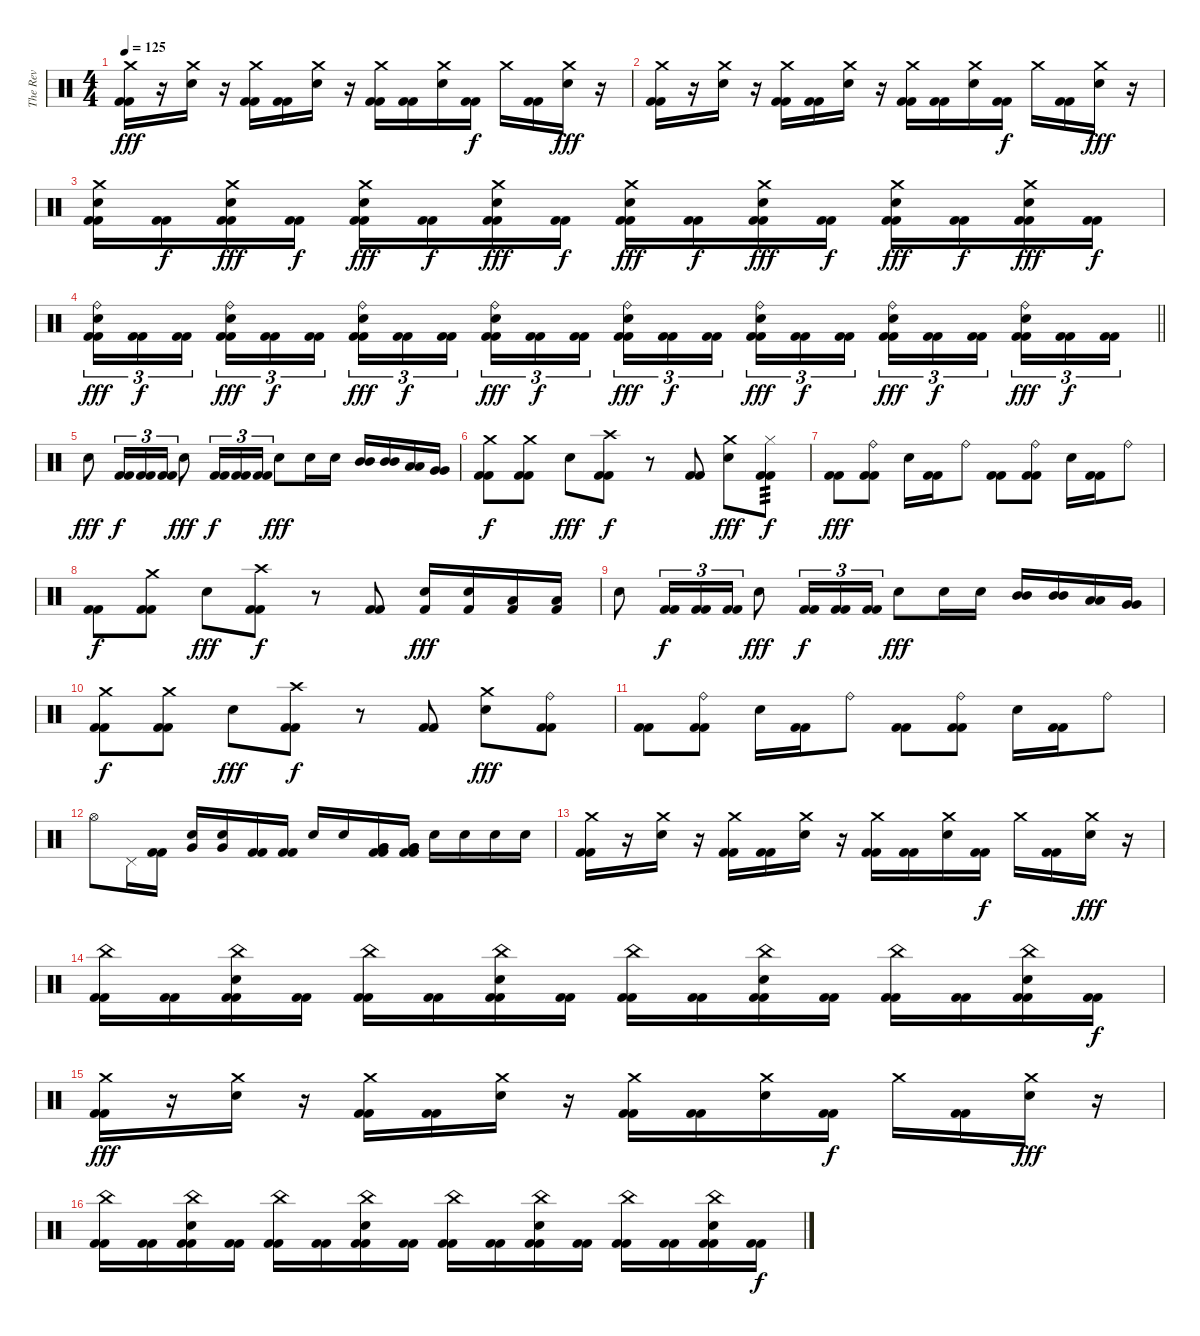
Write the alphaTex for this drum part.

\track ("The Rev" "The Rev") {instrument percussion}
\staff {score}
\articulation defaults
\ts (4 4)
\tempo 125
\clef neutral
\ks c
("Crash medium (hit)" "Kick (hit) 2" "Kick (hit) 2").16{dy fff} r.16 ("Crash medium (hit)" "Electric Snare (hit)").16 r.16 ("Crash medium (hit)" "Kick (hit) 2" "Kick (hit) 2").16 ("Kick (hit) 2" "Kick (hit) 2").16 ("Crash medium (hit)" "Electric Snare (hit)").16 r.16 ("Crash medium (hit)" "Kick (hit) 2" "Kick (hit) 2").16 ("Kick (hit) 2" "Kick (hit) 2").16 ("Crash medium (hit)" "Electric Snare (hit)").16 ("Kick (hit) 2" "Kick (hit) 2").16{dy f} "Crash medium (hit)".16 ("Kick (hit) 2" "Kick (hit) 2").16 ("Crash medium (hit)" "Electric Snare (hit)").16{dy fff} r.16 |
("Crash medium (hit)" "Kick (hit) 2" "Kick (hit) 2").16 r.16 ("Crash medium (hit)" "Electric Snare (hit)").16 r.16 ("Crash medium (hit)" "Kick (hit) 2" "Kick (hit) 2").16 ("Kick (hit) 2" "Kick (hit) 2").16 ("Crash medium (hit)" "Electric Snare (hit)").16 r.16 ("Crash medium (hit)" "Kick (hit) 2" "Kick (hit) 2").16 ("Kick (hit) 2" "Kick (hit) 2").16 ("Crash medium (hit)" "Electric Snare (hit)").16 ("Kick (hit) 2" "Kick (hit) 2").16{dy f} "Crash medium (hit)".16 ("Kick (hit) 2" "Kick (hit) 2").16 ("Crash medium (hit)" "Electric Snare (hit)").16{dy fff} r.16 |
("Crash medium (hit)" "Electric Snare (hit)" "Kick (hit) 2" "Kick (hit) 2").16 ("Kick (hit) 2" "Kick (hit) 2").16{dy f} ("Crash medium (hit)" "Electric Snare (hit)" "Kick (hit) 2" "Kick (hit) 2").16{dy fff} ("Kick (hit) 2" "Kick (hit) 2").16{dy f} ("Crash medium (hit)" "Electric Snare (hit)" "Kick (hit) 2" "Kick (hit) 2").16{dy fff} ("Kick (hit) 2" "Kick (hit) 2").16{dy f} ("Crash medium (hit)" "Electric Snare (hit)" "Kick (hit) 2" "Kick (hit) 2").16{dy fff} ("Kick (hit) 2" "Kick (hit) 2").16{dy f} ("Crash medium (hit)" "Electric Snare (hit)" "Kick (hit) 2" "Kick (hit) 2").16{dy fff} ("Kick (hit) 2" "Kick (hit) 2").16{dy f} ("Crash medium (hit)" "Electric Snare (hit)" "Kick (hit) 2" "Kick (hit) 2").16{dy fff} ("Kick (hit) 2" "Kick (hit) 2").16{dy f} ("Crash medium (hit)" "Electric Snare (hit)" "Kick (hit) 2" "Kick (hit) 2").16{dy fff} ("Kick (hit) 2" "Kick (hit) 2").16{dy f} ("Crash medium (hit)" "Electric Snare (hit)" "Kick (hit) 2" "Kick (hit) 2").16{dy fff} ("Kick (hit) 2" "Kick (hit) 2").16{dy f} |
\barLineRight lightlight
("Ride (bell)" "Electric Snare (hit)" "Kick (hit) 2" "Kick (hit) 2").16{tu (3 2) dy fff} ("Kick (hit) 2" "Kick (hit) 2").16{tu (3 2) dy f} ("Kick (hit) 2" "Kick (hit) 2").16{tu (3 2) beam splitsecondary} ("Ride (bell)" "Electric Snare (hit)" "Kick (hit) 2" "Kick (hit) 2").16{tu (3 2) dy fff} ("Kick (hit) 2" "Kick (hit) 2").16{tu (3 2) dy f} ("Kick (hit) 2" "Kick (hit) 2").16{tu (3 2)} ("Ride (bell)" "Electric Snare (hit)" "Kick (hit) 2" "Kick (hit) 2").16{tu (3 2) dy fff} ("Kick (hit) 2" "Kick (hit) 2").16{tu (3 2) dy f} ("Kick (hit) 2" "Kick (hit) 2").16{tu (3 2) beam splitsecondary} ("Ride (bell)" "Electric Snare (hit)" "Kick (hit) 2" "Kick (hit) 2").16{tu (3 2) dy fff} ("Kick (hit) 2" "Kick (hit) 2").16{tu (3 2) dy f} ("Kick (hit) 2" "Kick (hit) 2").16{tu (3 2)} ("Ride (bell)" "Electric Snare (hit)" "Kick (hit) 2" "Kick (hit) 2").16{tu (3 2) dy fff} ("Kick (hit) 2" "Kick (hit) 2").16{tu (3 2) dy f} ("Kick (hit) 2" "Kick (hit) 2").16{tu (3 2) beam splitsecondary} ("Ride (bell)" "Electric Snare (hit)" "Kick (hit) 2" "Kick (hit) 2").16{tu (3 2) dy fff} ("Kick (hit) 2" "Kick (hit) 2").16{tu (3 2) dy f} ("Kick (hit) 2" "Kick (hit) 2").16{tu (3 2)} ("Ride (bell)" "Electric Snare (hit)" "Kick (hit) 2" "Kick (hit) 2").16{tu (3 2) dy fff} ("Kick (hit) 2" "Kick (hit) 2").16{tu (3 2) dy f} ("Kick (hit) 2" "Kick (hit) 2").16{tu (3 2) beam splitsecondary} ("Ride (bell)" "Electric Snare (hit)" "Kick (hit) 2" "Kick (hit) 2").16{tu (3 2) dy fff} ("Kick (hit) 2" "Kick (hit) 2").16{tu (3 2) dy f} ("Kick (hit) 2" "Kick (hit) 2").16{tu (3 2)} |
"Electric Snare (hit)".8{dy fff} ("Kick (hit) 2" "Kick (hit) 2").16{tu (3 2) dy f} ("Kick (hit) 2" "Kick (hit) 2").16{tu (3 2)} ("Kick (hit) 2" "Kick (hit) 2").16{tu (3 2)} "Electric Snare (hit)".8{dy fff} ("Kick (hit) 2" "Kick (hit) 2").16{tu (3 2) dy f} ("Kick (hit) 2" "Kick (hit) 2").16{tu (3 2)} ("Kick (hit) 2" "Kick (hit) 2").16{tu (3 2)} "Electric Snare (hit)".8{dy fff} "Electric Snare (hit)".16 "Electric Snare (hit)".16 ("Mid Tom (hit)" "Mid Tom (hit)").16 ("Mid Tom (hit)" "Mid Tom (hit)").16 ("Low Tom (hit)" "Low Tom (hit)").16 ("Very Low Tom (hit)" "Very Low Tom (hit)").16 |
("Crash medium (hit)" "Kick (hit) 2" "Kick (hit) 2").8{dy f} ("Crash medium (hit)" "Kick (hit) 2" "Kick (hit) 2").8 "Electric Snare (hit)".8{dy fff} ("Crash high (hit)" "Kick (hit) 2" "Kick (hit) 2").8{dy f} r.8 ("Kick (hit) 2" "Kick (hit) 2").8 ("Crash medium (hit)" "Electric Snare (hit)").8{dy fff} ("Hi-Hat (closed)" "Kick (hit) 2" "Kick (hit) 2").8{tp 3 dy f} |
("Kick (hit) 2" "Kick (hit) 2").8{dy fff} ("Ride (bell)" "Kick (hit) 2" "Kick (hit) 2").8 "Electric Snare (hit)".16 ("Kick (hit) 2" "Kick (hit) 2").16 "Ride (bell)".8 ("Kick (hit) 2" "Kick (hit) 2").8 ("Ride (bell)" "Kick (hit) 2" "Kick (hit) 2").8 "Electric Snare (hit)".16 ("Kick (hit) 2" "Kick (hit) 2").16 "Ride (bell)".8 |
("Kick (hit) 2" "Kick (hit) 2").8{dy f} ("Crash medium (hit)" "Kick (hit) 2" "Kick (hit) 2").8 "Electric Snare (hit)".8{dy fff} ("Crash high (hit)" "Kick (hit) 2" "Kick (hit) 2").8{dy f} r.8 ("Kick (hit) 2" "Kick (hit) 2").8 ("Electric Snare (hit)" "Kick (hit) 2").16{dy fff} ("Electric Snare (hit)" "Kick (hit) 2").16 ("Low Tom (hit)" "Kick (hit) 2").16 ("Low Tom (hit)" "Kick (hit) 2").16 |
"Electric Snare (hit)".8 ("Kick (hit) 2" "Kick (hit) 2").16{tu (3 2) dy f} ("Kick (hit) 2" "Kick (hit) 2").16{tu (3 2)} ("Kick (hit) 2" "Kick (hit) 2").16{tu (3 2)} "Electric Snare (hit)".8{dy fff} ("Kick (hit) 2" "Kick (hit) 2").16{tu (3 2) dy f} ("Kick (hit) 2" "Kick (hit) 2").16{tu (3 2)} ("Kick (hit) 2" "Kick (hit) 2").16{tu (3 2)} "Electric Snare (hit)".8{dy fff} "Electric Snare (hit)".16 "Electric Snare (hit)".16 ("Mid Tom (hit)" "Mid Tom (hit)").16 ("Mid Tom (hit)" "Mid Tom (hit)").16 ("Low Tom (hit)" "Low Tom (hit)").16 ("Very Low Tom (hit)" "Very Low Tom (hit)").16 |
("Crash medium (hit)" "Kick (hit) 2" "Kick (hit) 2").8{dy f} ("Crash medium (hit)" "Kick (hit) 2" "Kick (hit) 2").8 "Electric Snare (hit)".8{dy fff} ("Crash high (hit)" "Kick (hit) 2" "Kick (hit) 2").8{dy f} r.8 ("Kick (hit) 2" "Kick (hit) 2").8 ("Crash medium (hit)" "Electric Snare (hit)").8{dy fff} ("Ride (bell)" "Kick (hit) 2" "Kick (hit) 2").8 |
("Kick (hit) 2" "Kick (hit) 2").8 ("Ride (bell)" "Kick (hit) 2" "Kick (hit) 2").8 "Electric Snare (hit)".16 ("Kick (hit) 2" "Kick (hit) 2").16 "Ride (bell)".8 ("Kick (hit) 2" "Kick (hit) 2").8 ("Ride (bell)" "Kick (hit) 2" "Kick (hit) 2").8 "Electric Snare (hit)".16 ("Kick (hit) 2" "Kick (hit) 2").16 "Ride (bell)".8 |
"Hi-Hat (open)".8 "Pedal Hi-Hat (hit)".16 ("Kick (hit) 2" "Kick (hit) 2").16 ("Very Low Tom (hit)" "Electric Snare (hit)").16 ("Very Low Tom (hit)" "Electric Snare (hit)").16 ("Kick (hit) 2" "Kick (hit) 2").16 ("Kick (hit) 2" "Kick (hit) 2").16 "Electric Snare (hit)".16 "Electric Snare (hit)".16 ("Very Low Tom (hit)" "Very Low Tom (hit)" "Kick (hit) 2" "Kick (hit) 2").16 ("Very Low Tom (hit)" "Very Low Tom (hit)" "Kick (hit) 2" "Kick (hit) 2").16 "Electric Snare (hit)".16 "Electric Snare (hit)".16 "Electric Snare (hit)".16 "Electric Snare (hit)".16 |
("Crash medium (hit)" "Kick (hit) 2" "Kick (hit) 2").16 r.16 ("Crash medium (hit)" "Electric Snare (hit)").16 r.16 ("Crash medium (hit)" "Kick (hit) 2" "Kick (hit) 2").16 ("Kick (hit) 2" "Kick (hit) 2").16 ("Crash medium (hit)" "Electric Snare (hit)").16 r.16 ("Crash medium (hit)" "Kick (hit) 2" "Kick (hit) 2").16 ("Kick (hit) 2" "Kick (hit) 2").16 ("Crash medium (hit)" "Electric Snare (hit)").16 ("Kick (hit) 2" "Kick (hit) 2").16{dy f} "Crash medium (hit)".16 ("Kick (hit) 2" "Kick (hit) 2").16 ("Crash medium (hit)" "Electric Snare (hit)").16{dy fff} r.16 |
("China (hit)" "Kick (hit) 2" "Kick (hit) 2").16 ("Kick (hit) 2" "Kick (hit) 2").16 ("China (hit)" "Electric Snare (hit)" "Kick (hit) 2" "Kick (hit) 2").16 ("Kick (hit) 2" "Kick (hit) 2").16 ("China (hit)" "Kick (hit) 2" "Kick (hit) 2").16 ("Kick (hit) 2" "Kick (hit) 2").16 ("China (hit)" "Electric Snare (hit)" "Kick (hit) 2" "Kick (hit) 2").16 ("Kick (hit) 2" "Kick (hit) 2").16 ("China (hit)" "Kick (hit) 2" "Kick (hit) 2").16 ("Kick (hit) 2" "Kick (hit) 2").16 ("China (hit)" "Electric Snare (hit)" "Kick (hit) 2" "Kick (hit) 2").16 ("Kick (hit) 2" "Kick (hit) 2").16 ("China (hit)" "Kick (hit) 2" "Kick (hit) 2").16 ("Kick (hit) 2" "Kick (hit) 2").16 ("China (hit)" "Electric Snare (hit)" "Kick (hit) 2" "Kick (hit) 2").16 ("Kick (hit) 2" "Kick (hit) 2").16{dy f} |
("Crash medium (hit)" "Kick (hit) 2" "Kick (hit) 2").16{dy fff} r.16 ("Crash medium (hit)" "Electric Snare (hit)").16 r.16 ("Crash medium (hit)" "Kick (hit) 2" "Kick (hit) 2").16 ("Kick (hit) 2" "Kick (hit) 2").16 ("Crash medium (hit)" "Electric Snare (hit)").16 r.16 ("Crash medium (hit)" "Kick (hit) 2" "Kick (hit) 2").16 ("Kick (hit) 2" "Kick (hit) 2").16 ("Crash medium (hit)" "Electric Snare (hit)").16 ("Kick (hit) 2" "Kick (hit) 2").16{dy f} "Crash medium (hit)".16 ("Kick (hit) 2" "Kick (hit) 2").16 ("Crash medium (hit)" "Electric Snare (hit)").16{dy fff} r.16 |
("China (hit)" "Kick (hit) 2" "Kick (hit) 2").16 ("Kick (hit) 2" "Kick (hit) 2").16 ("China (hit)" "Electric Snare (hit)" "Kick (hit) 2" "Kick (hit) 2").16 ("Kick (hit) 2" "Kick (hit) 2").16 ("China (hit)" "Kick (hit) 2" "Kick (hit) 2").16 ("Kick (hit) 2" "Kick (hit) 2").16 ("China (hit)" "Electric Snare (hit)" "Kick (hit) 2" "Kick (hit) 2").16 ("Kick (hit) 2" "Kick (hit) 2").16 ("China (hit)" "Kick (hit) 2" "Kick (hit) 2").16 ("Kick (hit) 2" "Kick (hit) 2").16 ("China (hit)" "Electric Snare (hit)" "Kick (hit) 2" "Kick (hit) 2").16 ("Kick (hit) 2" "Kick (hit) 2").16 ("China (hit)" "Kick (hit) 2" "Kick (hit) 2").16 ("Kick (hit) 2" "Kick (hit) 2").16 ("China (hit)" "Electric Snare (hit)" "Kick (hit) 2" "Kick (hit) 2").16 ("Kick (hit) 2" "Kick (hit) 2").16{dy f}
